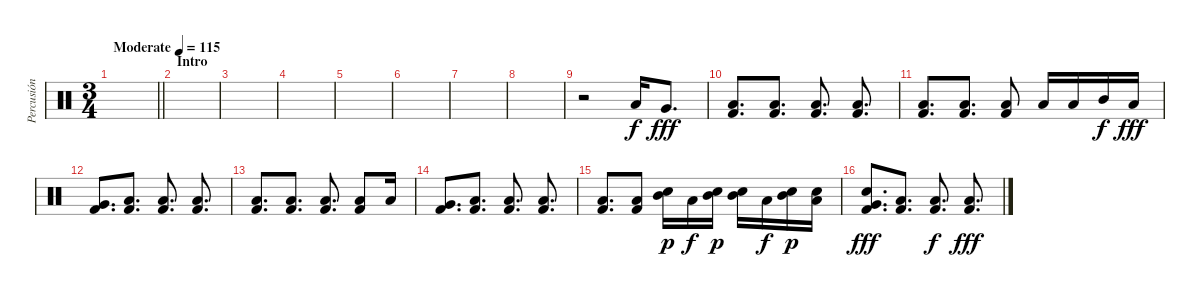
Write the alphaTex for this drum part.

\track ("Percusión" "Percusión") {instrument percussion}
\staff {score}
\articulation defaults
\ts (3 4)
\tempo (115 "Moderate")
\clef neutral
\barLineRight lightlight
\ks c
|
\section ("" "Intro")
|
|
|
|
|
|
|
r.2 "Low Tom (hit)".16 "Very Low Tom (hit)".8{d dy fff} |
("Low Floor Tom (hit)" "Kick (hit) 2").8{d} ("Low Floor Tom (hit)" "Kick (hit) 2").8{d} ("Low Floor Tom (hit)" "Kick (hit) 2").8{d} ("Low Floor Tom (hit)" "Kick (hit) 2").8{d} |
("Low Floor Tom (hit)" "Kick (hit) 2").8{d} ("Low Floor Tom (hit)" "Kick (hit) 2").8{d} ("Low Floor Tom (hit)" "Kick (hit) 2").8 "Low Tom (hit)".16 "Low Tom (hit)".16 "Mid Tom (hit)".16{dy f} "Low Tom (hit)".16{dy fff} |
("Very Low Tom (hit)" "Kick (hit) 2").8{d} ("Low Floor Tom (hit)" "Kick (hit) 2").8{d} ("Low Floor Tom (hit)" "Kick (hit) 2").8{d} ("Low Floor Tom (hit)" "Kick (hit) 2").8{d} |
("Low Floor Tom (hit)" "Kick (hit) 2").8{d} ("Low Floor Tom (hit)" "Kick (hit) 2").8{d} ("Low Floor Tom (hit)" "Kick (hit) 2").8{d} ("Low Floor Tom (hit)" "Kick (hit) 2").8 "Low Tom (hit)".16 |
("Very Low Tom (hit)" "Kick (hit) 2").8{d} ("Low Floor Tom (hit)" "Kick (hit) 2").8{d} ("Low Floor Tom (hit)" "Kick (hit) 2").8{d} ("Low Floor Tom (hit)" "Kick (hit) 2").8{d} |
("Low Floor Tom (hit)" "Kick (hit) 2").8{d} ("Low Floor Tom (hit)" "Kick (hit) 2").8 ("Mid Tom (hit)" "Electric Snare (hit)").16{dy p} "Low Tom (hit)".16{dy f} ("Mid Tom (hit)" "Electric Snare (hit)").16{dy p} ("Mid Tom (hit)" "Electric Snare (hit)").16 "Low Tom (hit)".16{dy f} ("Mid Tom (hit)" "Electric Snare (hit)").16{dy p} ("Low Tom (hit)" "Electric Snare (hit)").16 |
("Very Low Tom (hit)" "Electric Snare (hit)" "Kick (hit) 2").8{d dy fff} ("Low Floor Tom (hit)" "Kick (hit) 2").8{d} ("Low Floor Tom (hit)" "Kick (hit) 2").8{d dy f} ("Low Floor Tom (hit)" "Kick (hit) 2").8{d dy fff}
